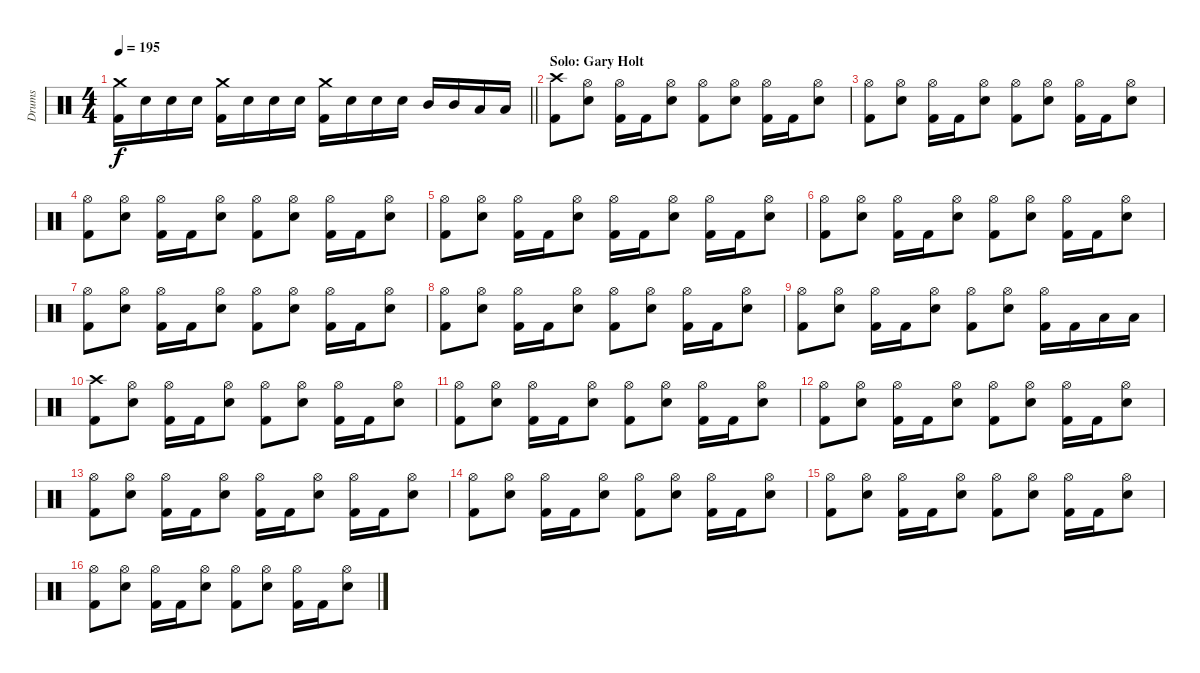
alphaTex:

\track ("Drums" "Drums") {instrument percussion}
\staff {score}
\articulation defaults
\ts (4 4)
\tempo 195
\clef neutral
\barLineRight lightlight
\ks c
("Crash medium (hit)" "Kick (hit) 2").16{dy f} "Electric Snare (hit)".16 "Electric Snare (hit)".16 "Electric Snare (hit)".16 ("Crash medium (hit)" "Kick (hit) 2").16 "Electric Snare (hit)".16 "Electric Snare (hit)".16 "Electric Snare (hit)".16 ("Crash medium (hit)" "Kick (hit) 2").16 "Electric Snare (hit)".16 "Electric Snare (hit)".16 "Electric Snare (hit)".16 "Mid Tom (hit)".16 "Mid Tom (hit)".16 "Low Tom (hit)".16 "Low Tom (hit)".16 |
\section ("" "Solo: Gary Holt")
("Crash high (hit)" "Kick (hit) 2").8 ("Hi-Hat (open)" "Electric Snare (hit)").8 ("Hi-Hat (open)" "Kick (hit) 2").16 "Kick (hit) 2".16 ("Hi-Hat (open)" "Electric Snare (hit)").8 ("Hi-Hat (open)" "Kick (hit) 2").8 ("Hi-Hat (open)" "Electric Snare (hit)").8 ("Hi-Hat (open)" "Kick (hit) 2").16 "Kick (hit) 2".16 ("Hi-Hat (open)" "Electric Snare (hit)").8 |
("Hi-Hat (open)" "Kick (hit) 2").8 ("Hi-Hat (open)" "Electric Snare (hit)").8 ("Hi-Hat (open)" "Kick (hit) 2").16 "Kick (hit) 2".16 ("Hi-Hat (open)" "Electric Snare (hit)").8 ("Hi-Hat (open)" "Kick (hit) 2").8 ("Hi-Hat (open)" "Electric Snare (hit)").8 ("Hi-Hat (open)" "Kick (hit) 2").16 "Kick (hit) 2".16 ("Hi-Hat (open)" "Electric Snare (hit)").8 |
("Hi-Hat (open)" "Kick (hit) 2").8 ("Hi-Hat (open)" "Electric Snare (hit)").8 ("Hi-Hat (open)" "Kick (hit) 2").16 "Kick (hit) 2".16 ("Hi-Hat (open)" "Electric Snare (hit)").8 ("Hi-Hat (open)" "Kick (hit) 2").8 ("Hi-Hat (open)" "Electric Snare (hit)").8 ("Hi-Hat (open)" "Kick (hit) 2").16 "Kick (hit) 2".16 ("Hi-Hat (open)" "Electric Snare (hit)").8 |
("Hi-Hat (open)" "Kick (hit) 2").8 ("Hi-Hat (open)" "Electric Snare (hit)").8 ("Hi-Hat (open)" "Kick (hit) 2").16 "Kick (hit) 2".16 ("Hi-Hat (open)" "Electric Snare (hit)").8 ("Hi-Hat (open)" "Kick (hit) 2").16 "Kick (hit) 2".16 ("Hi-Hat (open)" "Electric Snare (hit)").8 ("Hi-Hat (open)" "Kick (hit) 2").16 "Kick (hit) 2".16 ("Hi-Hat (open)" "Electric Snare (hit)").8 |
("Hi-Hat (open)" "Kick (hit) 2").8 ("Hi-Hat (open)" "Electric Snare (hit)").8 ("Hi-Hat (open)" "Kick (hit) 2").16 "Kick (hit) 2".16 ("Hi-Hat (open)" "Electric Snare (hit)").8 ("Hi-Hat (open)" "Kick (hit) 2").8 ("Hi-Hat (open)" "Electric Snare (hit)").8 ("Hi-Hat (open)" "Kick (hit) 2").16 "Kick (hit) 2".16 ("Hi-Hat (open)" "Electric Snare (hit)").8 |
("Hi-Hat (open)" "Kick (hit) 2").8 ("Hi-Hat (open)" "Electric Snare (hit)").8 ("Hi-Hat (open)" "Kick (hit) 2").16 "Kick (hit) 2".16 ("Hi-Hat (open)" "Electric Snare (hit)").8 ("Hi-Hat (open)" "Kick (hit) 2").8 ("Hi-Hat (open)" "Electric Snare (hit)").8 ("Hi-Hat (open)" "Kick (hit) 2").16 "Kick (hit) 2".16 ("Hi-Hat (open)" "Electric Snare (hit)").8 |
("Hi-Hat (open)" "Kick (hit) 2").8 ("Hi-Hat (open)" "Electric Snare (hit)").8 ("Hi-Hat (open)" "Kick (hit) 2").16 "Kick (hit) 2".16 ("Hi-Hat (open)" "Electric Snare (hit)").8 ("Hi-Hat (open)" "Kick (hit) 2").8 ("Hi-Hat (open)" "Electric Snare (hit)").8 ("Hi-Hat (open)" "Kick (hit) 2").16 "Kick (hit) 2".16 ("Hi-Hat (open)" "Electric Snare (hit)").8 |
("Hi-Hat (open)" "Kick (hit) 2").8 ("Hi-Hat (open)" "Electric Snare (hit)").8 ("Hi-Hat (open)" "Kick (hit) 2").16 "Kick (hit) 2".16 ("Hi-Hat (open)" "Electric Snare (hit)").8 ("Hi-Hat (open)" "Kick (hit) 2").8 ("Hi-Hat (open)" "Electric Snare (hit)").8 ("Hi-Hat (open)" "Kick (hit) 2").16 "Kick (hit) 2".16 "Low Tom (hit)".16 "Low Tom (hit)".16 |
("Crash high (hit)" "Kick (hit) 2").8 ("Hi-Hat (open)" "Electric Snare (hit)").8 ("Hi-Hat (open)" "Kick (hit) 2").16 "Kick (hit) 2".16 ("Hi-Hat (open)" "Electric Snare (hit)").8 ("Hi-Hat (open)" "Kick (hit) 2").8 ("Hi-Hat (open)" "Electric Snare (hit)").8 ("Hi-Hat (open)" "Kick (hit) 2").16 "Kick (hit) 2".16 ("Hi-Hat (open)" "Electric Snare (hit)").8 |
("Hi-Hat (open)" "Kick (hit) 2").8 ("Hi-Hat (open)" "Electric Snare (hit)").8 ("Hi-Hat (open)" "Kick (hit) 2").16 "Kick (hit) 2".16 ("Hi-Hat (open)" "Electric Snare (hit)").8 ("Hi-Hat (open)" "Kick (hit) 2").8 ("Hi-Hat (open)" "Electric Snare (hit)").8 ("Hi-Hat (open)" "Kick (hit) 2").16 "Kick (hit) 2".16 ("Hi-Hat (open)" "Electric Snare (hit)").8 |
("Hi-Hat (open)" "Kick (hit) 2").8 ("Hi-Hat (open)" "Electric Snare (hit)").8 ("Hi-Hat (open)" "Kick (hit) 2").16 "Kick (hit) 2".16 ("Hi-Hat (open)" "Electric Snare (hit)").8 ("Hi-Hat (open)" "Kick (hit) 2").8 ("Hi-Hat (open)" "Electric Snare (hit)").8 ("Hi-Hat (open)" "Kick (hit) 2").16 "Kick (hit) 2".16 ("Hi-Hat (open)" "Electric Snare (hit)").8 |
("Hi-Hat (open)" "Kick (hit) 2").8 ("Hi-Hat (open)" "Electric Snare (hit)").8 ("Hi-Hat (open)" "Kick (hit) 2").16 "Kick (hit) 2".16 ("Hi-Hat (open)" "Electric Snare (hit)").8 ("Hi-Hat (open)" "Kick (hit) 2").16 "Kick (hit) 2".16 ("Hi-Hat (open)" "Electric Snare (hit)").8 ("Hi-Hat (open)" "Kick (hit) 2").16 "Kick (hit) 2".16 ("Hi-Hat (open)" "Electric Snare (hit)").8 |
("Hi-Hat (open)" "Kick (hit) 2").8 ("Hi-Hat (open)" "Electric Snare (hit)").8 ("Hi-Hat (open)" "Kick (hit) 2").16 "Kick (hit) 2".16 ("Hi-Hat (open)" "Electric Snare (hit)").8 ("Hi-Hat (open)" "Kick (hit) 2").8 ("Hi-Hat (open)" "Electric Snare (hit)").8 ("Hi-Hat (open)" "Kick (hit) 2").16 "Kick (hit) 2".16 ("Hi-Hat (open)" "Electric Snare (hit)").8 |
("Hi-Hat (open)" "Kick (hit) 2").8 ("Hi-Hat (open)" "Electric Snare (hit)").8 ("Hi-Hat (open)" "Kick (hit) 2").16 "Kick (hit) 2".16 ("Hi-Hat (open)" "Electric Snare (hit)").8 ("Hi-Hat (open)" "Kick (hit) 2").8 ("Hi-Hat (open)" "Electric Snare (hit)").8 ("Hi-Hat (open)" "Kick (hit) 2").16 "Kick (hit) 2".16 ("Hi-Hat (open)" "Electric Snare (hit)").8 |
("Hi-Hat (open)" "Kick (hit) 2").8 ("Hi-Hat (open)" "Electric Snare (hit)").8 ("Hi-Hat (open)" "Kick (hit) 2").16 "Kick (hit) 2".16 ("Hi-Hat (open)" "Electric Snare (hit)").8 ("Hi-Hat (open)" "Kick (hit) 2").8 ("Hi-Hat (open)" "Electric Snare (hit)").8 ("Hi-Hat (open)" "Kick (hit) 2").16 "Kick (hit) 2".16 ("Hi-Hat (open)" "Electric Snare (hit)").8
